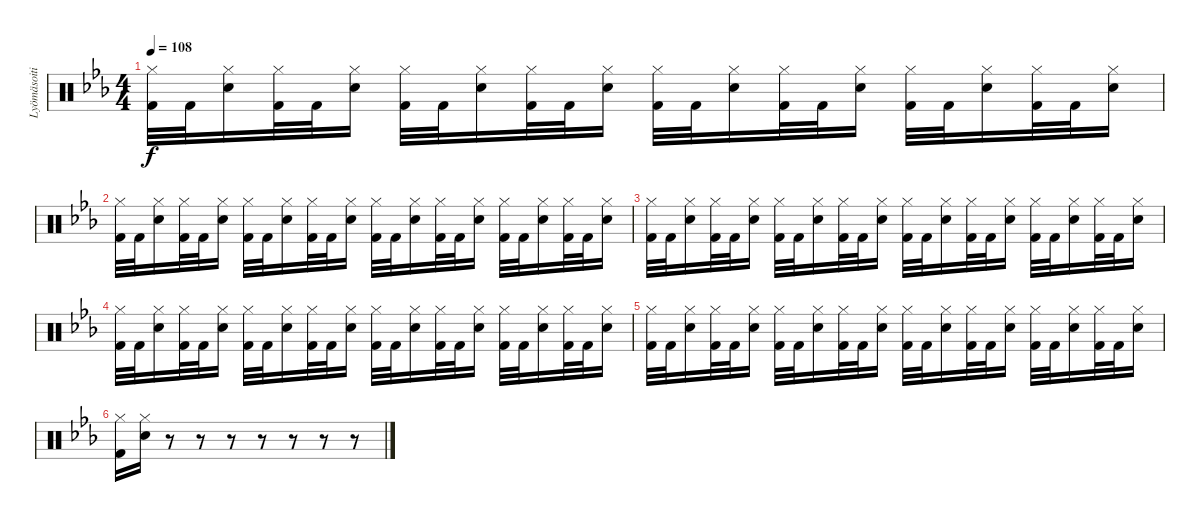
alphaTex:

\track ("Lyömäsoitin" "Lyömäsoiti") {instrument percussion}
\staff {score}
\articulation defaults
\ts (4 4)
\tempo 108
\clef neutral
\ks cminor
("Hi-Hat (closed)" "Kick (hit) 2").32{dy f} "Kick (hit) 2".32 ("Hi-Hat (closed)" "Electric Snare (hit)").16 ("Hi-Hat (closed)" "Kick (hit) 2").32 "Kick (hit) 2".32 ("Hi-Hat (closed)" "Electric Snare (hit)").16 ("Hi-Hat (closed)" "Kick (hit) 2").32 "Kick (hit) 2".32 ("Hi-Hat (closed)" "Electric Snare (hit)").16 ("Hi-Hat (closed)" "Kick (hit) 2").32 "Kick (hit) 2".32 ("Hi-Hat (closed)" "Electric Snare (hit)").16 ("Hi-Hat (closed)" "Kick (hit) 2").32 "Kick (hit) 2".32 ("Hi-Hat (closed)" "Electric Snare (hit)").16 ("Hi-Hat (closed)" "Kick (hit) 2").32 "Kick (hit) 2".32 ("Hi-Hat (closed)" "Electric Snare (hit)").16 ("Hi-Hat (closed)" "Kick (hit) 2").32 "Kick (hit) 2".32 ("Hi-Hat (closed)" "Electric Snare (hit)").16 ("Hi-Hat (closed)" "Kick (hit) 2").32 "Kick (hit) 2".32 ("Hi-Hat (closed)" "Electric Snare (hit)").16 |
("Hi-Hat (closed)" "Kick (hit) 2").32 "Kick (hit) 2".32 ("Hi-Hat (closed)" "Electric Snare (hit)").16 ("Hi-Hat (closed)" "Kick (hit) 2").32 "Kick (hit) 2".32 ("Hi-Hat (closed)" "Electric Snare (hit)").16 ("Hi-Hat (closed)" "Kick (hit) 2").32 "Kick (hit) 2".32 ("Hi-Hat (closed)" "Electric Snare (hit)").16 ("Hi-Hat (closed)" "Kick (hit) 2").32 "Kick (hit) 2".32 ("Hi-Hat (closed)" "Electric Snare (hit)").16 ("Hi-Hat (closed)" "Kick (hit) 2").32 "Kick (hit) 2".32 ("Hi-Hat (closed)" "Electric Snare (hit)").16 ("Hi-Hat (closed)" "Kick (hit) 2").32 "Kick (hit) 2".32 ("Hi-Hat (closed)" "Electric Snare (hit)").16 ("Hi-Hat (closed)" "Kick (hit) 2").32 "Kick (hit) 2".32 ("Hi-Hat (closed)" "Electric Snare (hit)").16 ("Hi-Hat (closed)" "Kick (hit) 2").32 "Kick (hit) 2".32 ("Hi-Hat (closed)" "Electric Snare (hit)").16 |
("Hi-Hat (closed)" "Kick (hit) 2").32 "Kick (hit) 2".32 ("Hi-Hat (closed)" "Electric Snare (hit)").16 ("Hi-Hat (closed)" "Kick (hit) 2").32 "Kick (hit) 2".32 ("Hi-Hat (closed)" "Electric Snare (hit)").16 ("Hi-Hat (closed)" "Kick (hit) 2").32 "Kick (hit) 2".32 ("Hi-Hat (closed)" "Electric Snare (hit)").16 ("Hi-Hat (closed)" "Kick (hit) 2").32 "Kick (hit) 2".32 ("Hi-Hat (closed)" "Electric Snare (hit)").16 ("Hi-Hat (closed)" "Kick (hit) 2").32 "Kick (hit) 2".32 ("Hi-Hat (closed)" "Electric Snare (hit)").16 ("Hi-Hat (closed)" "Kick (hit) 2").32 "Kick (hit) 2".32 ("Hi-Hat (closed)" "Electric Snare (hit)").16 ("Hi-Hat (closed)" "Kick (hit) 2").32 "Kick (hit) 2".32 ("Hi-Hat (closed)" "Electric Snare (hit)").16 ("Hi-Hat (closed)" "Kick (hit) 2").32 "Kick (hit) 2".32 ("Hi-Hat (closed)" "Electric Snare (hit)").16 |
("Hi-Hat (closed)" "Kick (hit) 2").32 "Kick (hit) 2".32 ("Hi-Hat (closed)" "Electric Snare (hit)").16 ("Hi-Hat (closed)" "Kick (hit) 2").32 "Kick (hit) 2".32 ("Hi-Hat (closed)" "Electric Snare (hit)").16 ("Hi-Hat (closed)" "Kick (hit) 2").32 "Kick (hit) 2".32 ("Hi-Hat (closed)" "Electric Snare (hit)").16 ("Hi-Hat (closed)" "Kick (hit) 2").32 "Kick (hit) 2".32 ("Hi-Hat (closed)" "Electric Snare (hit)").16 ("Hi-Hat (closed)" "Kick (hit) 2").32 "Kick (hit) 2".32 ("Hi-Hat (closed)" "Electric Snare (hit)").16 ("Hi-Hat (closed)" "Kick (hit) 2").32 "Kick (hit) 2".32 ("Hi-Hat (closed)" "Electric Snare (hit)").16 ("Hi-Hat (closed)" "Kick (hit) 2").32 "Kick (hit) 2".32 ("Hi-Hat (closed)" "Electric Snare (hit)").16 ("Hi-Hat (closed)" "Kick (hit) 2").32 "Kick (hit) 2".32 ("Hi-Hat (closed)" "Electric Snare (hit)").16 |
("Hi-Hat (closed)" "Kick (hit) 2").32 "Kick (hit) 2".32 ("Hi-Hat (closed)" "Electric Snare (hit)").16 ("Hi-Hat (closed)" "Kick (hit) 2").32 "Kick (hit) 2".32 ("Hi-Hat (closed)" "Electric Snare (hit)").16 ("Hi-Hat (closed)" "Kick (hit) 2").32 "Kick (hit) 2".32 ("Hi-Hat (closed)" "Electric Snare (hit)").16 ("Hi-Hat (closed)" "Kick (hit) 2").32 "Kick (hit) 2".32 ("Hi-Hat (closed)" "Electric Snare (hit)").16 ("Hi-Hat (closed)" "Kick (hit) 2").32 "Kick (hit) 2".32 ("Hi-Hat (closed)" "Electric Snare (hit)").16 ("Hi-Hat (closed)" "Kick (hit) 2").32 "Kick (hit) 2".32 ("Hi-Hat (closed)" "Electric Snare (hit)").16 ("Hi-Hat (closed)" "Kick (hit) 2").32 "Kick (hit) 2".32 ("Hi-Hat (closed)" "Electric Snare (hit)").16 ("Hi-Hat (closed)" "Kick (hit) 2").32 "Kick (hit) 2".32 ("Hi-Hat (closed)" "Electric Snare (hit)").16 |
("Hi-Hat (closed)" "Kick (hit) 2").16 ("Hi-Hat (closed)" "Electric Snare (hit)").16 r.8 r.8 r.8 r.8 r.8 r.8 r.8
